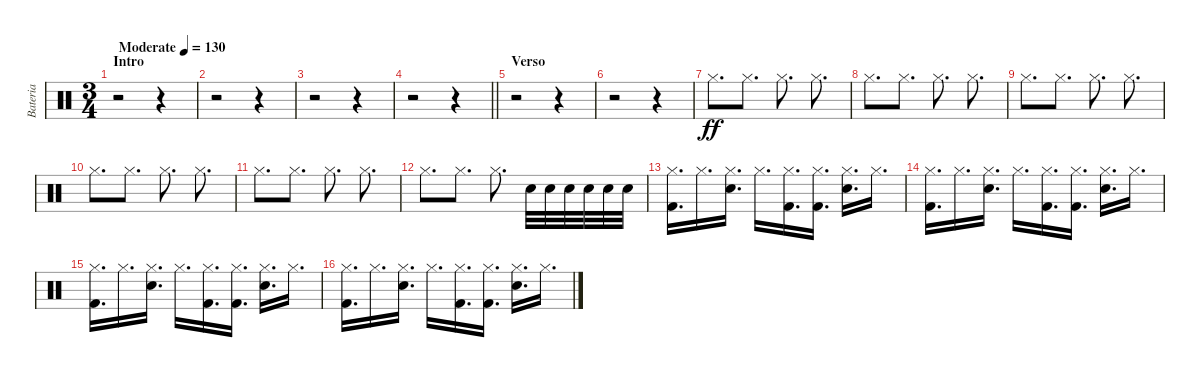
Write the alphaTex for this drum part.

\track ("Bateria" "Bateria") {instrument percussion}
\staff {score}
\articulation defaults
\ts (3 4)
\section ("" "Intro")
\tempo (130 "Moderate")
\clef neutral
\ks c
r.2{dy ff} r.4 |
r.2 r.4 |
r.2 r.4 |
\barLineRight lightlight
r.2 r.4 |
\section ("" "Verso")
r.2 r.4 |
r.2 r.4 |
"Hi-Hat (closed)".8{d} "Hi-Hat (closed)".8{d} "Hi-Hat (closed)".8{d} "Hi-Hat (closed)".8{d} |
"Hi-Hat (closed)".8{d} "Hi-Hat (closed)".8{d} "Hi-Hat (closed)".8{d} "Hi-Hat (closed)".8{d} |
"Hi-Hat (closed)".8{d} "Hi-Hat (closed)".8{d} "Hi-Hat (closed)".8{d} "Hi-Hat (closed)".8{d} |
"Hi-Hat (closed)".8{d} "Hi-Hat (closed)".8{d} "Hi-Hat (closed)".8{d} "Hi-Hat (closed)".8{d} |
"Hi-Hat (closed)".8{d} "Hi-Hat (closed)".8{d} "Hi-Hat (closed)".8{d} "Hi-Hat (closed)".8{d} |
"Hi-Hat (closed)".8{d} "Hi-Hat (closed)".8{d} "Hi-Hat (closed)".8{d} "Snare (hit) 2".32 "Snare (hit) 2".32 "Snare (hit) 2".32 "Snare (hit) 2".32 "Snare (hit) 2".32 "Snare (hit) 2".32 |
("Hi-Hat (closed)" "Kick (hit) 2").16{d} "Hi-Hat (closed)".16{d} ("Hi-Hat (closed)" "Snare (hit) 2").16{d} "Hi-Hat (closed)".16{d} ("Hi-Hat (closed)" "Kick (hit) 2").16{d} ("Hi-Hat (closed)" "Kick (hit) 2").16{d} ("Hi-Hat (closed)" "Snare (hit) 2").16{d} "Hi-Hat (closed)".16{d} |
("Hi-Hat (closed)" "Kick (hit) 2").16{d} "Hi-Hat (closed)".16{d} ("Hi-Hat (closed)" "Snare (hit) 2").16{d} "Hi-Hat (closed)".16{d} ("Hi-Hat (closed)" "Kick (hit) 2").16{d} ("Hi-Hat (closed)" "Kick (hit) 2").16{d} ("Hi-Hat (closed)" "Snare (hit) 2").16{d} "Hi-Hat (closed)".16{d} |
("Hi-Hat (closed)" "Kick (hit) 2").16{d} "Hi-Hat (closed)".16{d} ("Hi-Hat (closed)" "Snare (hit) 2").16{d} "Hi-Hat (closed)".16{d} ("Hi-Hat (closed)" "Kick (hit) 2").16{d} ("Hi-Hat (closed)" "Kick (hit) 2").16{d} ("Hi-Hat (closed)" "Snare (hit) 2").16{d} "Hi-Hat (closed)".16{d} |
("Hi-Hat (closed)" "Kick (hit) 2").16{d} "Hi-Hat (closed)".16{d} ("Hi-Hat (closed)" "Snare (hit) 2").16{d} "Hi-Hat (closed)".16{d} ("Hi-Hat (closed)" "Kick (hit) 2").16{d} ("Hi-Hat (closed)" "Kick (hit) 2").16{d} ("Hi-Hat (closed)" "Snare (hit) 2").16{d} "Hi-Hat (closed)".16{d}
